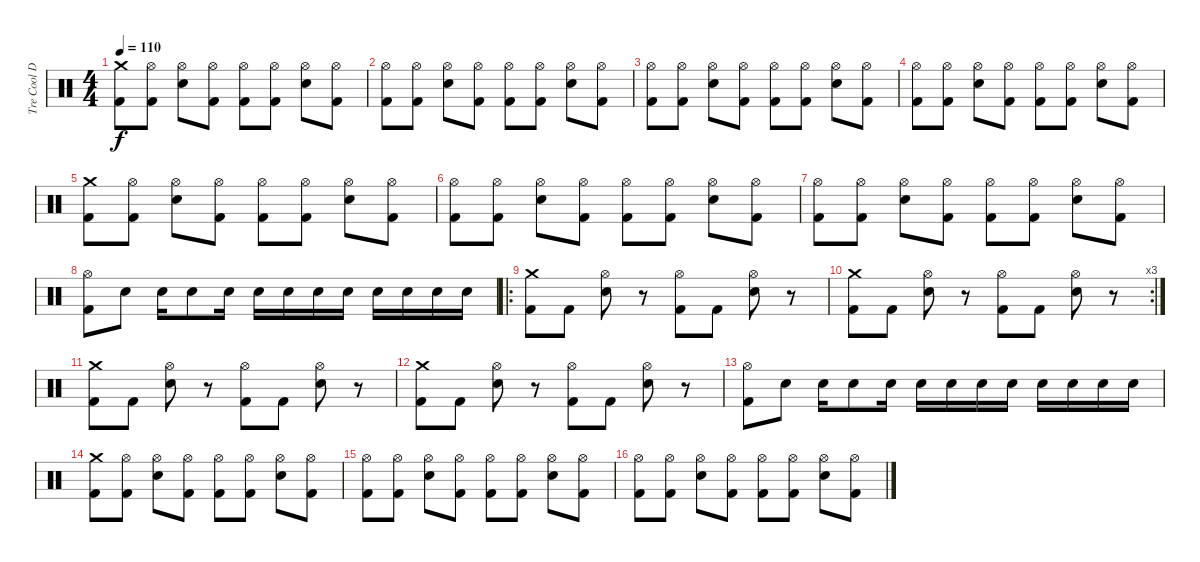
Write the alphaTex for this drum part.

\track ("Tre Cool Drums" "Tre Cool D") {instrument percussion}
\staff {score}
\articulation defaults
\ts (4 4)
\tempo 110
\clef neutral
\ks c
("Crash medium (hit)" "Kick (hit) 2").8{dy f} ("Hi-Hat (open)" "Kick (hit) 2").8 ("Hi-Hat (open)" "Electric Snare (hit)").8 ("Hi-Hat (open)" "Kick (hit) 2").8 ("Hi-Hat (open)" "Kick (hit) 2").8 ("Hi-Hat (open)" "Kick (hit) 2").8 ("Hi-Hat (open)" "Electric Snare (hit)").8 ("Hi-Hat (open)" "Kick (hit) 2").8 |
("Hi-Hat (open)" "Kick (hit) 2").8 ("Hi-Hat (open)" "Kick (hit) 2").8 ("Hi-Hat (open)" "Electric Snare (hit)").8 ("Hi-Hat (open)" "Kick (hit) 2").8 ("Hi-Hat (open)" "Kick (hit) 2").8 ("Hi-Hat (open)" "Kick (hit) 2").8 ("Hi-Hat (open)" "Electric Snare (hit)").8 ("Hi-Hat (open)" "Kick (hit) 2").8 |
("Hi-Hat (open)" "Kick (hit) 2").8 ("Hi-Hat (open)" "Kick (hit) 2").8 ("Hi-Hat (open)" "Electric Snare (hit)").8 ("Hi-Hat (open)" "Kick (hit) 2").8 ("Hi-Hat (open)" "Kick (hit) 2").8 ("Hi-Hat (open)" "Kick (hit) 2").8 ("Hi-Hat (open)" "Electric Snare (hit)").8 ("Hi-Hat (open)" "Kick (hit) 2").8 |
("Hi-Hat (open)" "Kick (hit) 2").8 ("Hi-Hat (open)" "Kick (hit) 2").8 ("Hi-Hat (open)" "Electric Snare (hit)").8 ("Hi-Hat (open)" "Kick (hit) 2").8 ("Hi-Hat (open)" "Kick (hit) 2").8 ("Hi-Hat (open)" "Kick (hit) 2").8 ("Hi-Hat (open)" "Electric Snare (hit)").8 ("Hi-Hat (open)" "Kick (hit) 2").8 |
("Crash medium (hit)" "Kick (hit) 2").8 ("Hi-Hat (open)" "Kick (hit) 2").8 ("Hi-Hat (open)" "Electric Snare (hit)").8 ("Hi-Hat (open)" "Kick (hit) 2").8 ("Hi-Hat (open)" "Kick (hit) 2").8 ("Hi-Hat (open)" "Kick (hit) 2").8 ("Hi-Hat (open)" "Electric Snare (hit)").8 ("Hi-Hat (open)" "Kick (hit) 2").8 |
("Hi-Hat (open)" "Kick (hit) 2").8 ("Hi-Hat (open)" "Kick (hit) 2").8 ("Hi-Hat (open)" "Electric Snare (hit)").8 ("Hi-Hat (open)" "Kick (hit) 2").8 ("Hi-Hat (open)" "Kick (hit) 2").8 ("Hi-Hat (open)" "Kick (hit) 2").8 ("Hi-Hat (open)" "Electric Snare (hit)").8 ("Hi-Hat (open)" "Kick (hit) 2").8 |
("Hi-Hat (open)" "Kick (hit) 2").8 ("Hi-Hat (open)" "Kick (hit) 2").8 ("Hi-Hat (open)" "Electric Snare (hit)").8 ("Hi-Hat (open)" "Kick (hit) 2").8 ("Hi-Hat (open)" "Kick (hit) 2").8 ("Hi-Hat (open)" "Kick (hit) 2").8 ("Hi-Hat (open)" "Electric Snare (hit)").8 ("Hi-Hat (open)" "Kick (hit) 2").8 |
("Hi-Hat (open)" "Kick (hit) 2").8 "Electric Snare (hit)".8 "Electric Snare (hit)".16 "Electric Snare (hit)".8 "Electric Snare (hit)".16 "Electric Snare (hit)".16 "Electric Snare (hit)".16 "Electric Snare (hit)".16 "Electric Snare (hit)".16 "Electric Snare (hit)".16 "Electric Snare (hit)".16 "Electric Snare (hit)".16 "Electric Snare (hit)".16 |
\ro
("Crash medium (hit)" "Kick (hit) 2").8 "Kick (hit) 2".8 ("Hi-Hat (open)" "Electric Snare (hit)").8 r.8 ("Hi-Hat (open)" "Kick (hit) 2").8 "Kick (hit) 2".8 ("Hi-Hat (open)" "Electric Snare (hit)").8 r.8 |
\rc 3
("Crash medium (hit)" "Kick (hit) 2").8 "Kick (hit) 2".8 ("Hi-Hat (open)" "Electric Snare (hit)").8 r.8 ("Hi-Hat (open)" "Kick (hit) 2").8 "Kick (hit) 2".8 ("Hi-Hat (open)" "Electric Snare (hit)").8 r.8 |
("Crash medium (hit)" "Kick (hit) 2").8 "Kick (hit) 2".8 ("Hi-Hat (open)" "Electric Snare (hit)").8 r.8 ("Hi-Hat (open)" "Kick (hit) 2").8 "Kick (hit) 2".8 ("Hi-Hat (open)" "Electric Snare (hit)").8 r.8 |
("Crash medium (hit)" "Kick (hit) 2").8 "Kick (hit) 2".8 ("Hi-Hat (open)" "Electric Snare (hit)").8 r.8 ("Hi-Hat (open)" "Kick (hit) 2").8 "Kick (hit) 2".8 ("Hi-Hat (open)" "Electric Snare (hit)").8 r.8 |
("Hi-Hat (open)" "Kick (hit) 2").8 "Electric Snare (hit)".8 "Electric Snare (hit)".16 "Electric Snare (hit)".8 "Electric Snare (hit)".16 "Electric Snare (hit)".16 "Electric Snare (hit)".16 "Electric Snare (hit)".16 "Electric Snare (hit)".16 "Electric Snare (hit)".16 "Electric Snare (hit)".16 "Electric Snare (hit)".16 "Electric Snare (hit)".16 |
("Crash medium (hit)" "Kick (hit) 2").8 ("Hi-Hat (open)" "Kick (hit) 2").8 ("Hi-Hat (open)" "Electric Snare (hit)").8 ("Hi-Hat (open)" "Kick (hit) 2").8 ("Hi-Hat (open)" "Kick (hit) 2").8 ("Hi-Hat (open)" "Kick (hit) 2").8 ("Hi-Hat (open)" "Electric Snare (hit)").8 ("Hi-Hat (open)" "Kick (hit) 2").8 |
("Hi-Hat (open)" "Kick (hit) 2").8 ("Hi-Hat (open)" "Kick (hit) 2").8 ("Hi-Hat (open)" "Electric Snare (hit)").8 ("Hi-Hat (open)" "Kick (hit) 2").8 ("Hi-Hat (open)" "Kick (hit) 2").8 ("Hi-Hat (open)" "Kick (hit) 2").8 ("Hi-Hat (open)" "Electric Snare (hit)").8 ("Hi-Hat (open)" "Kick (hit) 2").8 |
("Hi-Hat (open)" "Kick (hit) 2").8 ("Hi-Hat (open)" "Kick (hit) 2").8 ("Hi-Hat (open)" "Electric Snare (hit)").8 ("Hi-Hat (open)" "Kick (hit) 2").8 ("Hi-Hat (open)" "Kick (hit) 2").8 ("Hi-Hat (open)" "Kick (hit) 2").8 ("Hi-Hat (open)" "Electric Snare (hit)").8 ("Hi-Hat (open)" "Kick (hit) 2").8
